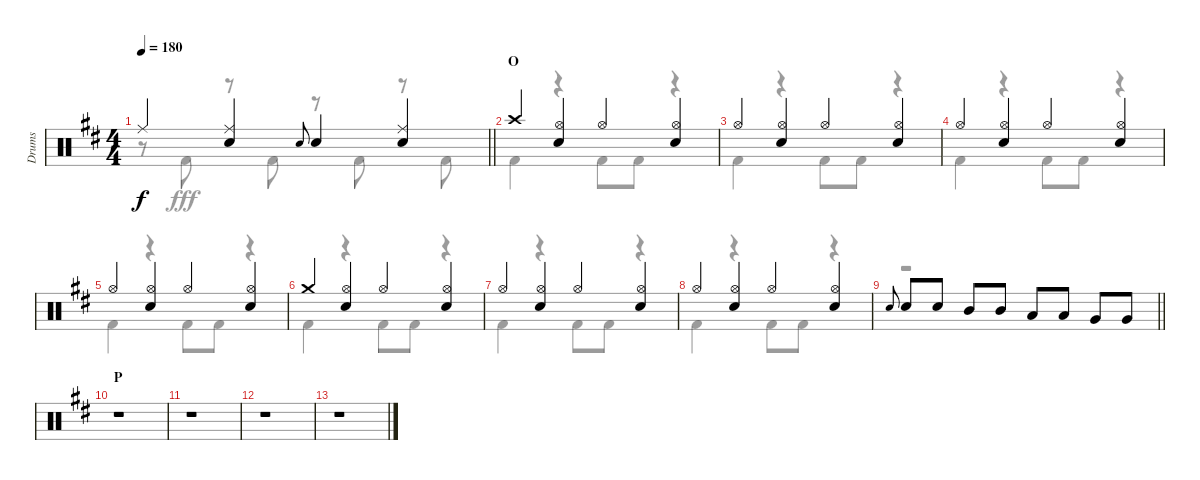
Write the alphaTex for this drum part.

\track ("Drums" "Drums") {instrument percussion}
\staff {score}
\articulation defaults
\voice
\ts (4 4)
\tempo 180
\clef neutral
\barLineRight lightlight
\ks d "Ride (middle)".4{dy f}
("Ride (middle)" "Snare (hit) 2").4 "Snare (hit) 2".8{gr onbeat} "Snare (hit) 2".4 ("Ride (middle)" "Snare (hit) 2").4 |
\section ("" "O")
"Crash high (hit)".4 ("Hi-Hat (open)" "Snare (hit) 2").4 "Hi-Hat (open)".4 ("Hi-Hat (open)" "Snare (hit) 2").4 |
"Hi-Hat (open)".4 ("Hi-Hat (open)" "Snare (hit) 2").4 "Hi-Hat (open)".4 ("Hi-Hat (open)" "Snare (hit) 2").4 |
"Hi-Hat (open)".4 ("Hi-Hat (open)" "Snare (hit) 2").4 "Hi-Hat (open)".4 ("Hi-Hat (open)" "Snare (hit) 2").4 |
"Hi-Hat (open)".4 ("Hi-Hat (open)" "Snare (hit) 2").4 "Hi-Hat (open)".4 ("Hi-Hat (open)" "Snare (hit) 2").4 |
"Crash medium (hit)".4 ("Hi-Hat (open)" "Snare (hit) 2").4 "Hi-Hat (open)".4 ("Hi-Hat (open)" "Snare (hit) 2").4 |
"Hi-Hat (open)".4 ("Hi-Hat (open)" "Snare (hit) 2").4 "Hi-Hat (open)".4 ("Hi-Hat (open)" "Snare (hit) 2").4 |
"Hi-Hat (open)".4 ("Hi-Hat (open)" "Snare (hit) 2").4 "Hi-Hat (open)".4 ("Hi-Hat (open)" "Snare (hit) 2").4 |
\barLineRight lightlight "Snare (hit) 2".8{gr onbeat} "Snare (hit) 2".8 "Snare (hit) 2".8 "Mid Tom (hit)".8 "Mid Tom (hit)".8 "Low Tom (hit)".8 "Low Tom (hit)".8 "Very Low Tom (hit)".8 "Very Low Tom (hit)".8
|
\section ("" "P")
r.1 |
r.1 |
r.1 |
r.1
\voice
\clef neutral
\ottava regular
\simile none
\barLineRight lightlight
\ks d
r.8{dy fff} "Kick (hit) 2".8 r.8 "Kick (hit) 2".8 r.8 "Kick (hit) 2".8 r.8 "Kick (hit) 2".8 |
"Kick (hit) 2".4 r.4 "Kick (hit) 2".8 "Kick (hit) 2".8 r.4 |
"Kick (hit) 2".4 r.4 "Kick (hit) 2".8 "Kick (hit) 2".8 r.4 |
"Kick (hit) 2".4 r.4 "Kick (hit) 2".8 "Kick (hit) 2".8 r.4 |
"Kick (hit) 2".4 r.4 "Kick (hit) 2".8 "Kick (hit) 2".8 r.4 |
"Kick (hit) 2".4 r.4 "Kick (hit) 2".8 "Kick (hit) 2".8 r.4 |
"Kick (hit) 2".4 r.4 "Kick (hit) 2".8 "Kick (hit) 2".8 r.4 |
"Kick (hit) 2".4 r.4 "Kick (hit) 2".8 "Kick (hit) 2".8 r.4 |
\barLineRight lightlight
r.1 |
r.1 |
r.1 |
r.1 |
r.1
